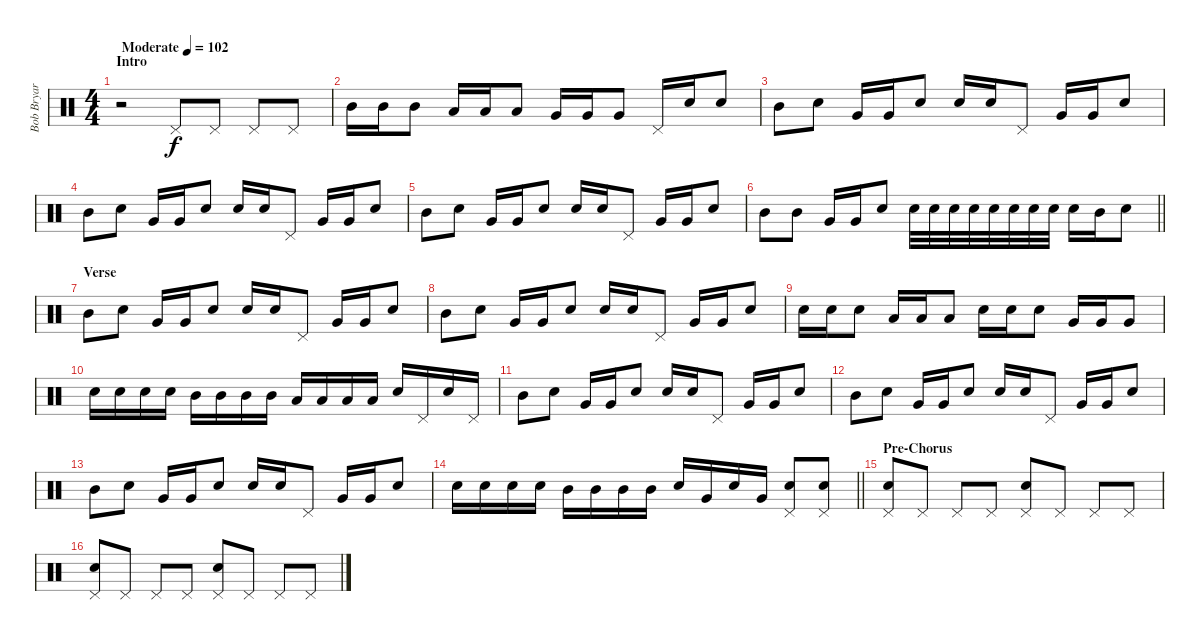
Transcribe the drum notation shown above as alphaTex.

\track ("Bob Bryar" "Bob Bryar") {instrument percussion}
\staff {score}
\articulation defaults
\ts (4 4)
\section ("" "Intro")
\tempo (102 "Moderate")
\clef neutral
\ks c
r.2{dy f} "Pedal Hi-Hat (hit)".8 "Pedal Hi-Hat (hit)".8 "Pedal Hi-Hat (hit)".8 "Pedal Hi-Hat (hit)".8 |
"Mid Tom (hit)".16 "Mid Tom (hit)".16 "Mid Tom (hit)".8 "Low Tom (hit)".16 "Low Tom (hit)".16 "Low Tom (hit)".8 "Very Low Tom (hit)".16 "Very Low Tom (hit)".16 "Very Low Tom (hit)".8 "Pedal Hi-Hat (hit)".16 "Electric Snare (hit)".16 "Electric Snare (hit)".8 |
"Mid Tom (hit)".8 "Electric Snare (hit)".8 "Very Low Tom (hit)".16 "Very Low Tom (hit)".16 "Electric Snare (hit)".8 "Electric Snare (hit)".16 "Electric Snare (hit)".16 "Pedal Hi-Hat (hit)".8 "Very Low Tom (hit)".16 "Very Low Tom (hit)".16 "Electric Snare (hit)".8 |
"Mid Tom (hit)".8 "Electric Snare (hit)".8 "Very Low Tom (hit)".16 "Very Low Tom (hit)".16 "Electric Snare (hit)".8 "Electric Snare (hit)".16 "Electric Snare (hit)".16 "Pedal Hi-Hat (hit)".8 "Very Low Tom (hit)".16 "Very Low Tom (hit)".16 "Electric Snare (hit)".8 |
"Mid Tom (hit)".8 "Electric Snare (hit)".8 "Very Low Tom (hit)".16 "Very Low Tom (hit)".16 "Electric Snare (hit)".8 "Electric Snare (hit)".16 "Electric Snare (hit)".16 "Pedal Hi-Hat (hit)".8 "Very Low Tom (hit)".16 "Very Low Tom (hit)".16 "Electric Snare (hit)".8 |
\barLineRight lightlight "Mid Tom (hit)".8 "Mid Tom (hit)".8 "Very Low Tom (hit)".16 "Very Low Tom (hit)".16 "Electric Snare (hit)".8 "Electric Snare (hit)".32 "Electric Snare (hit)".32 "Electric Snare (hit)".32 "Electric Snare (hit)".32 "Electric Snare (hit)".32 "Electric Snare (hit)".32 "Electric Snare (hit)".32 "Electric Snare (hit)".32 "Electric Snare (hit)".16 "Mid Tom (hit)".16 "Electric Snare (hit)".8
|
\section ("" "Verse")
"Mid Tom (hit)".8 "Electric Snare (hit)".8 "Very Low Tom (hit)".16 "Very Low Tom (hit)".16 "Electric Snare (hit)".8 "Electric Snare (hit)".16 "Electric Snare (hit)".16 "Pedal Hi-Hat (hit)".8 "Very Low Tom (hit)".16 "Very Low Tom (hit)".16 "Electric Snare (hit)".8 |
"Mid Tom (hit)".8 "Electric Snare (hit)".8 "Very Low Tom (hit)".16 "Very Low Tom (hit)".16 "Electric Snare (hit)".8 "Electric Snare (hit)".16 "Electric Snare (hit)".16 "Pedal Hi-Hat (hit)".8 "Very Low Tom (hit)".16 "Very Low Tom (hit)".16 "Electric Snare (hit)".8 |
"Electric Snare (hit)".16 "Electric Snare (hit)".16 "Electric Snare (hit)".8 "Low Tom (hit)".16 "Low Tom (hit)".16 "Low Tom (hit)".8 "Electric Snare (hit)".16 "Electric Snare (hit)".16 "Electric Snare (hit)".8 "Very Low Tom (hit)".16 "Very Low Tom (hit)".16 "Very Low Tom (hit)".8 |
"Electric Snare (hit)".16 "Electric Snare (hit)".16 "Electric Snare (hit)".16 "Electric Snare (hit)".16 "Mid Tom (hit)".16 "Mid Tom (hit)".16 "Mid Tom (hit)".16 "Mid Tom (hit)".16 "Low Tom (hit)".16 "Low Tom (hit)".16 "Low Tom (hit)".16 "Low Tom (hit)".16 "Electric Snare (hit)".16 "Pedal Hi-Hat (hit)".16 "Electric Snare (hit)".16 "Pedal Hi-Hat (hit)".16 |
"Mid Tom (hit)".8 "Electric Snare (hit)".8 "Very Low Tom (hit)".16 "Very Low Tom (hit)".16 "Electric Snare (hit)".8 "Electric Snare (hit)".16 "Electric Snare (hit)".16 "Pedal Hi-Hat (hit)".8 "Very Low Tom (hit)".16 "Very Low Tom (hit)".16 "Electric Snare (hit)".8 |
"Mid Tom (hit)".8 "Electric Snare (hit)".8 "Very Low Tom (hit)".16 "Very Low Tom (hit)".16 "Electric Snare (hit)".8 "Electric Snare (hit)".16 "Electric Snare (hit)".16 "Pedal Hi-Hat (hit)".8 "Very Low Tom (hit)".16 "Very Low Tom (hit)".16 "Electric Snare (hit)".8 |
"Mid Tom (hit)".8 "Electric Snare (hit)".8 "Very Low Tom (hit)".16 "Very Low Tom (hit)".16 "Electric Snare (hit)".8 "Electric Snare (hit)".16 "Electric Snare (hit)".16 "Pedal Hi-Hat (hit)".8 "Very Low Tom (hit)".16 "Very Low Tom (hit)".16 "Electric Snare (hit)".8 |
\barLineRight lightlight "Electric Snare (hit)".16 "Electric Snare (hit)".16 "Electric Snare (hit)".16 "Electric Snare (hit)".16 "Mid Tom (hit)".16 "Mid Tom (hit)".16 "Mid Tom (hit)".16 "Mid Tom (hit)".16 "Electric Snare (hit)".16 "Very Low Tom (hit)".16 "Electric Snare (hit)".16 "Very Low Tom (hit)".16
("Electric Snare (hit)" "Pedal Hi-Hat (hit)").8 ("Electric Snare (hit)" "Pedal Hi-Hat (hit)").8 |
\section ("" "Pre-Chorus")
("Pedal Hi-Hat (hit)" "Electric Snare (hit)").8 "Pedal Hi-Hat (hit)".8 "Pedal Hi-Hat (hit)".8 "Pedal Hi-Hat (hit)".8 ("Pedal Hi-Hat (hit)" "Electric Snare (hit)").8 "Pedal Hi-Hat (hit)".8 "Pedal Hi-Hat (hit)".8 "Pedal Hi-Hat (hit)".8 |
("Pedal Hi-Hat (hit)" "Electric Snare (hit)").8 "Pedal Hi-Hat (hit)".8 "Pedal Hi-Hat (hit)".8 "Pedal Hi-Hat (hit)".8 ("Pedal Hi-Hat (hit)" "Electric Snare (hit)").8 "Pedal Hi-Hat (hit)".8 "Pedal Hi-Hat (hit)".8 "Pedal Hi-Hat (hit)".8
